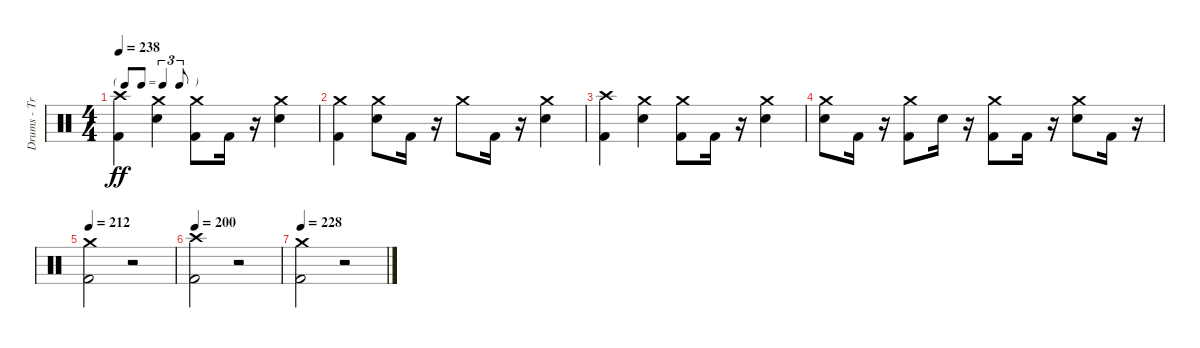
\track ("Drums - Travis" "Drums - Tr") {instrument percussion}
\staff {score}
\articulation defaults
\ts (4 4)
\tf triplet8th
\tempo 238
\clef neutral
\ks c
("Kick (hit) 2" "Crash high (hit)").4{dy ff} ("Electric Snare (hit)" "Crash medium (hit)").4 ("Kick (hit) 2" "Crash medium (hit)").8 "Kick (hit) 2".16 r.16 ("Electric Snare (hit)" "Crash medium (hit)").4 |
("Kick (hit) 2" "Crash medium (hit)").4 ("Electric Snare (hit)" "Crash medium (hit)").8 "Kick (hit) 2".16 r.16 "Crash medium (hit)".8 "Kick (hit) 2".16 r.16 ("Electric Snare (hit)" "Crash medium (hit)").4 |
("Kick (hit) 2" "Crash high (hit)").4 ("Electric Snare (hit)" "Crash medium (hit)").4 ("Kick (hit) 2" "Crash medium (hit)").8 "Kick (hit) 2".16 r.16 ("Electric Snare (hit)" "Crash medium (hit)").4 |
("Electric Snare (hit)" "Crash medium (hit)").8 "Kick (hit) 2".16 r.16 ("Kick (hit) 2" "Crash medium (hit)").8 "Electric Snare (hit)".16 r.16 ("Kick (hit) 2" "Crash medium (hit)").8 "Kick (hit) 2".16 r.16 ("Electric Snare (hit)" "Crash medium (hit)").8 "Kick (hit) 2".16 r.16 |
\tempo 212
("Kick (hit) 2" "Crash medium (hit)").2 r.2 |
\tempo 200
("Kick (hit) 2" "Crash high (hit)").2 r.2 |
\tempo 228
("Kick (hit) 2" "Crash medium (hit)").2 r.2
